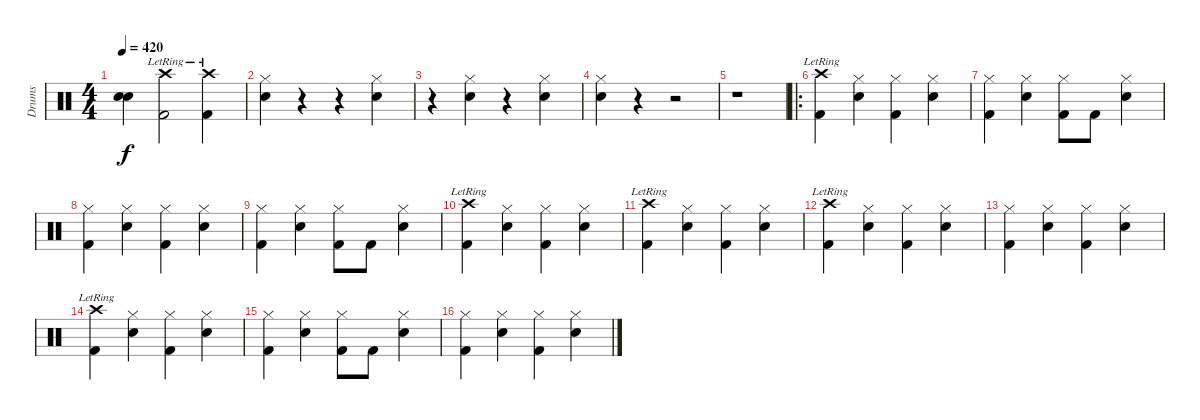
\track ("Drums" "Drums") {instrument percussion}
\staff {score}
\articulation defaults
\ts (4 4)
\tempo 420
\clef neutral
\ks c
("Snare (hit)"{t} "Snare (hit)"{t}).4{dy f} ("Crash high (hit)"{lr} "Kick (hit) 2").2 ("Crash high (hit)"{lr} "Kick (hit) 2").4 |
("Hi-Hat (closed)" "Snare (hit) 2").4 r.4 r.4 ("Hi-Hat (closed)" "Snare (hit) 2").4 |
r.4 ("Hi-Hat (closed)" "Snare (hit) 2").4 r.4 ("Hi-Hat (closed)" "Snare (hit) 2").4 |
("Hi-Hat (closed)" "Snare (hit) 2").4 r.4 r.2 |
r.1 |
\ro
("Crash high (hit)"{lr} "Kick (hit) 2").4 ("Hi-Hat (closed)" "Snare (hit) 2").4 ("Hi-Hat (closed)" "Kick (hit) 2").4 ("Hi-Hat (closed)" "Snare (hit) 2").4 |
("Hi-Hat (closed)" "Kick (hit) 2").4 ("Hi-Hat (closed)" "Snare (hit) 2").4 ("Hi-Hat (closed)" "Kick (hit) 2").8 "Kick (hit) 2".8 ("Hi-Hat (closed)" "Snare (hit) 2").4 |
("Hi-Hat (closed)" "Kick (hit) 2").4 ("Hi-Hat (closed)" "Snare (hit) 2").4 ("Hi-Hat (closed)" "Kick (hit) 2").4 ("Hi-Hat (closed)" "Snare (hit) 2").4 |
("Hi-Hat (closed)" "Kick (hit) 2").4 ("Hi-Hat (closed)" "Snare (hit) 2").4 ("Hi-Hat (closed)" "Kick (hit) 2").8 "Kick (hit) 2".8 ("Hi-Hat (closed)" "Snare (hit) 2").4 |
("Crash high (hit)"{lr} "Kick (hit) 2").4 ("Hi-Hat (closed)" "Snare (hit) 2").4 ("Hi-Hat (closed)" "Kick (hit) 2").4 ("Hi-Hat (closed)" "Snare (hit) 2").4 |
("Crash high (hit)"{lr} "Kick (hit) 2").4 ("Hi-Hat (closed)" "Snare (hit) 2").4 ("Hi-Hat (closed)" "Kick (hit) 2").4 ("Hi-Hat (closed)" "Snare (hit) 2").4 |
("Crash high (hit)"{lr} "Kick (hit) 2").4 ("Hi-Hat (closed)" "Snare (hit) 2").4 ("Hi-Hat (closed)" "Kick (hit) 2").4 ("Hi-Hat (closed)" "Snare (hit) 2").4 |
("Hi-Hat (closed)" "Kick (hit) 2").4 ("Hi-Hat (closed)" "Snare (hit) 2").4 ("Hi-Hat (closed)" "Kick (hit) 2").4 ("Hi-Hat (closed)" "Snare (hit) 2").4 |
("Crash high (hit)"{lr} "Kick (hit) 2").4 ("Hi-Hat (closed)" "Snare (hit) 2").4 ("Hi-Hat (closed)" "Kick (hit) 2").4 ("Hi-Hat (closed)" "Snare (hit) 2").4 |
("Hi-Hat (closed)" "Kick (hit) 2").4 ("Hi-Hat (closed)" "Snare (hit) 2").4 ("Hi-Hat (closed)" "Kick (hit) 2").8 "Kick (hit) 2".8 ("Hi-Hat (closed)" "Snare (hit) 2").4 |
("Hi-Hat (closed)" "Kick (hit) 2").4 ("Hi-Hat (closed)" "Snare (hit) 2").4 ("Hi-Hat (closed)" "Kick (hit) 2").4 ("Hi-Hat (closed)" "Snare (hit) 2").4
